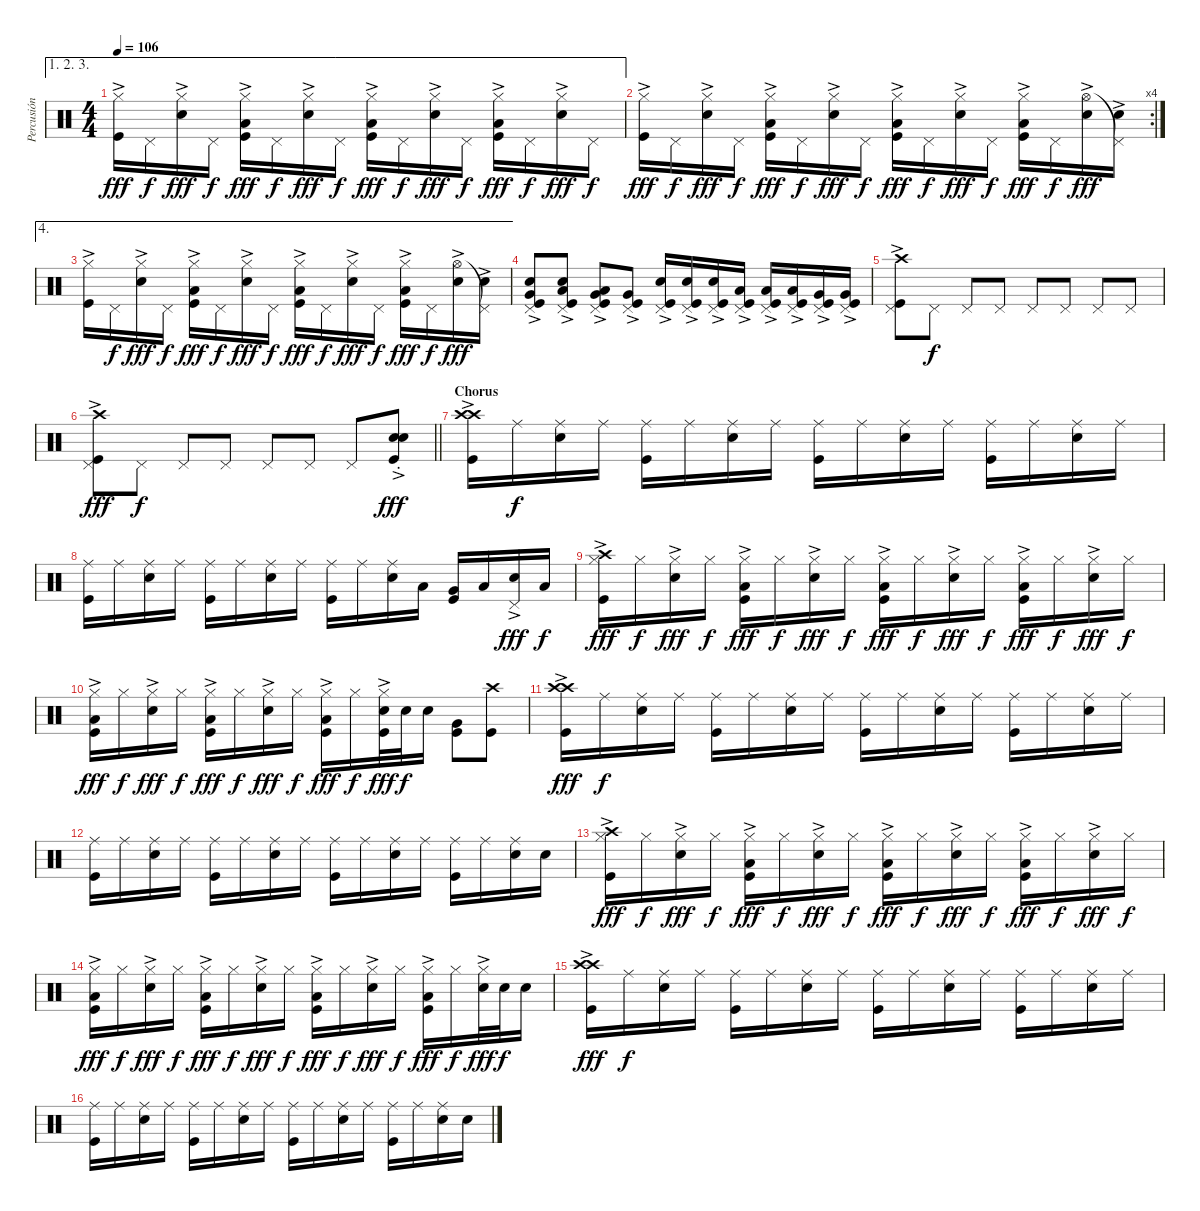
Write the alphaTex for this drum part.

\track ("Percusión" "Percusión") {instrument percussion}
\staff {score}
\articulation defaults
\ae (1 2 3)
\ts (4 4)
\tempo 106
\clef neutral
\ks c
("Hi-Hat (closed)"{ac} "Kick (hit)").16{dy fff} "Pedal Hi-Hat (hit)".16{dy f} ("Hi-Hat (closed)"{ac} "Snare (hit) 2").16{dy fff} "Pedal Hi-Hat (hit)".16{dy f} ("Low Tom (hit)" "Hi-Hat (closed)"{ac} "Kick (hit)").16{dy fff} "Pedal Hi-Hat (hit)".16{dy f} ("Hi-Hat (closed)"{ac} "Snare (hit) 2").16{dy fff} "Pedal Hi-Hat (hit)".16{dy f} ("Low Tom (hit)" "Hi-Hat (closed)"{ac} "Kick (hit)").16{dy fff} "Pedal Hi-Hat (hit)".16{dy f} ("Hi-Hat (closed)"{ac} "Snare (hit) 2").16{dy fff} "Pedal Hi-Hat (hit)".16{dy f} ("Low Tom (hit)" "Hi-Hat (closed)"{ac} "Kick (hit)").16{dy fff} "Pedal Hi-Hat (hit)".16{dy f} ("Hi-Hat (closed)"{ac} "Snare (hit) 2").16{dy fff} "Pedal Hi-Hat (hit)".16{dy f} |
\rc 4
("Hi-Hat (closed)"{ac} "Kick (hit)").16{dy fff} "Pedal Hi-Hat (hit)".16{dy f} ("Hi-Hat (closed)"{ac} "Snare (hit) 2").16{dy fff} "Pedal Hi-Hat (hit)".16{dy f} ("Low Tom (hit)" "Hi-Hat (closed)"{ac} "Kick (hit)").16{dy fff} "Pedal Hi-Hat (hit)".16{dy f} ("Hi-Hat (closed)"{ac} "Snare (hit) 2").16{dy fff} "Pedal Hi-Hat (hit)".16{dy f} ("Low Tom (hit)" "Hi-Hat (closed)"{ac} "Kick (hit)").16{dy fff} "Pedal Hi-Hat (hit)".16{dy f} ("Hi-Hat (closed)"{ac} "Snare (hit) 2").16{dy fff} "Pedal Hi-Hat (hit)".16{dy f} ("Low Tom (hit)" "Hi-Hat (closed)"{ac} "Kick (hit)").16{dy fff} "Pedal Hi-Hat (hit)".16{dy f} ("Hi-Hat (open)"{ac} "Snare (hit) 2").16{dy fff} ("Pedal Hi-Hat (hit)"{t} "Snare (hit) 2"{ac}).16 |
\ae 4
("Hi-Hat (closed)"{ac} "Kick (hit)").16 "Pedal Hi-Hat (hit)".16{dy f} ("Hi-Hat (closed)"{ac} "Snare (hit) 2").16{dy fff} "Pedal Hi-Hat (hit)".16{dy f} ("Low Tom (hit)" "Hi-Hat (closed)"{ac} "Kick (hit)").16{dy fff} "Pedal Hi-Hat (hit)".16{dy f} ("Hi-Hat (closed)"{ac} "Snare (hit) 2").16{dy fff} "Pedal Hi-Hat (hit)".16{dy f} ("Low Tom (hit)" "Hi-Hat (closed)"{ac} "Kick (hit)").16{dy fff} "Pedal Hi-Hat (hit)".16{dy f} ("Hi-Hat (closed)"{ac} "Snare (hit) 2").16{dy fff} "Pedal Hi-Hat (hit)".16{dy f} ("Low Tom (hit)" "Hi-Hat (closed)"{ac} "Kick (hit)").16{dy fff} "Pedal Hi-Hat (hit)".16{dy f} ("Hi-Hat (open)"{ac} "Snare (hit) 2").16{dy fff} ("Pedal Hi-Hat (hit)"{t} "Snare (hit) 2"{ac}).16 |
("Very Low Tom (hit)"{ac} "Pedal Hi-Hat (hit)" "Snare (hit) 2"{ac} "Kick (hit)").8 ("Low Tom (hit)"{ac} "Pedal Hi-Hat (hit)" "Snare (hit) 2"{ac} "Kick (hit)").8 ("Very Low Tom (hit)"{ac} "Low Tom (hit)"{ac} "Pedal Hi-Hat (hit)" "Kick (hit)").8 ("Very Low Tom (hit)"{ac} "Pedal Hi-Hat (hit)" "Kick (hit)").8 ("Pedal Hi-Hat (hit)" "Snare (hit) 2"{ac} "Kick (hit)").16 ("Pedal Hi-Hat (hit)" "Snare (hit) 2"{ac} "Kick (hit)").16 ("Pedal Hi-Hat (hit)" "Snare (hit) 2"{ac} "Kick (hit)").16 ("Low Tom (hit)"{ac} "Pedal Hi-Hat (hit)" "Kick (hit)").16 ("Low Tom (hit)"{ac} "Pedal Hi-Hat (hit)" "Kick (hit)").16 ("Low Tom (hit)"{ac} "Pedal Hi-Hat (hit)" "Kick (hit)").16 ("Very Low Tom (hit)"{ac} "Pedal Hi-Hat (hit)" "Kick (hit)").16 ("Very Low Tom (hit)"{ac} "Pedal Hi-Hat (hit)" "Kick (hit)").16 |
("Crash high (hit)"{ac} "Pedal Hi-Hat (hit)" "Kick (hit)").8 "Pedal Hi-Hat (hit)".8{dy f} "Pedal Hi-Hat (hit)".8 "Pedal Hi-Hat (hit)".8 "Pedal Hi-Hat (hit)".8 "Pedal Hi-Hat (hit)".8 "Pedal Hi-Hat (hit)".8 "Pedal Hi-Hat (hit)".8 |
\barLineRight lightlight
("Crash high (hit)"{ac} "Pedal Hi-Hat (hit)" "Kick (hit)").8{dy fff} "Pedal Hi-Hat (hit)".8{dy f} "Pedal Hi-Hat (hit)".8 "Pedal Hi-Hat (hit)".8 "Pedal Hi-Hat (hit)".8 "Pedal Hi-Hat (hit)".8 "Pedal Hi-Hat (hit)".8 ("Snare (hit) 2"{ac st} "Snare (hit) 2"{ac st} "Kick (hit)"{ac st}).8{dy fff} |
\section ("" "Chorus")
("Crash high (hit)"{ac} "Crash high (hit)"{ac} "Kick (hit)").16 "Ride (middle)".16{dy f} ("Ride (middle)" "Snare (hit) 2").16 "Ride (middle)".16 ("Ride (middle)" "Kick (hit)").16 "Ride (middle)".16 ("Ride (middle)" "Snare (hit) 2").16 "Ride (middle)".16 ("Ride (middle)" "Kick (hit)").16 "Ride (middle)".16 ("Ride (middle)" "Snare (hit) 2").16 "Ride (middle)".16 ("Ride (middle)" "Kick (hit)").16 "Ride (middle)".16 ("Ride (middle)" "Snare (hit) 2").16 "Ride (middle)".16 |
("Ride (middle)" "Kick (hit)").16 "Ride (middle)".16 ("Ride (middle)" "Snare (hit) 2").16 "Ride (middle)".16 ("Ride (middle)" "Kick (hit)").16 "Ride (middle)".16 ("Ride (middle)" "Snare (hit) 2").16 "Ride (middle)".16 ("Ride (middle)" "Kick (hit)").16 "Ride (middle)".16 ("Ride (middle)" "Snare (hit) 2").16 "Low Tom (hit)".16 ("Very Low Tom (hit)" "Kick (hit)").16 "Low Tom (hit)".16 ("Snare (hit) 2" "Pedal Hi-Hat (hit)"{ac}).16{dy fff} "Low Tom (hit)".16{dy f} |
("Crash high (hit)"{ac} "Hi-Hat (closed)"{ac} "Kick (hit)").16{dy fff} "Hi-Hat (closed)".16{dy f} ("Hi-Hat (closed)"{ac} "Snare (hit) 2").16{dy fff} "Hi-Hat (closed)".16{dy f} ("Low Tom (hit)" "Hi-Hat (closed)"{ac} "Kick (hit)").16{dy fff} "Hi-Hat (closed)".16{dy f} ("Hi-Hat (closed)"{ac} "Snare (hit) 2").16{dy fff} "Hi-Hat (closed)".16{dy f} ("Low Tom (hit)" "Hi-Hat (closed)"{ac} "Kick (hit)").16{dy fff} "Hi-Hat (closed)".16{dy f} ("Hi-Hat (closed)"{ac} "Snare (hit) 2").16{dy fff} "Hi-Hat (closed)".16{dy f} ("Low Tom (hit)" "Hi-Hat (closed)"{ac} "Kick (hit)").16{dy fff} "Hi-Hat (closed)".16{dy f} ("Hi-Hat (closed)"{ac} "Snare (hit) 2").16{dy fff} "Hi-Hat (closed)".16{dy f} |
("Low Tom (hit)" "Hi-Hat (closed)"{ac} "Kick (hit)").16{dy fff} "Hi-Hat (closed)".16{dy f} ("Hi-Hat (closed)"{ac} "Snare (hit) 2").16{dy fff} "Hi-Hat (closed)".16{dy f} ("Low Tom (hit)" "Hi-Hat (closed)"{ac} "Kick (hit)").16{dy fff} "Hi-Hat (closed)".16{dy f} ("Hi-Hat (closed)"{ac} "Snare (hit) 2").16{dy fff} "Hi-Hat (closed)".16{dy f} ("Low Tom (hit)" "Hi-Hat (closed)"{ac} "Kick (hit)").16{dy fff} "Hi-Hat (closed)".16{dy f} ("Hi-Hat (closed)"{ac} "Snare (hit) 2" "Kick (hit)").32{dy fff} "Snare (hit) 2".32{dy f} "Snare (hit) 2".16 ("Very Low Tom (hit)" "Kick (hit)").8 ("Crash high (hit)" "Kick (hit)").8 |
("Crash high (hit)"{ac} "Crash high (hit)"{ac} "Kick (hit)").16{dy fff} "Ride (middle)".16{dy f} ("Ride (middle)" "Snare (hit) 2").16 "Ride (middle)".16 ("Ride (middle)" "Kick (hit)").16 "Ride (middle)".16 ("Ride (middle)" "Snare (hit) 2").16 "Ride (middle)".16 ("Ride (middle)" "Kick (hit)").16 "Ride (middle)".16 ("Ride (middle)" "Snare (hit) 2").16 "Ride (middle)".16 ("Ride (middle)" "Kick (hit)").16 "Ride (middle)".16 ("Ride (middle)" "Snare (hit) 2").16 "Ride (middle)".16 |
("Ride (middle)" "Kick (hit)").16 "Ride (middle)".16 ("Ride (middle)" "Snare (hit) 2").16 "Ride (middle)".16 ("Ride (middle)" "Kick (hit)").16 "Ride (middle)".16 ("Ride (middle)" "Snare (hit) 2").16 "Ride (middle)".16 ("Ride (middle)" "Kick (hit)").16 "Ride (middle)".16 ("Ride (middle)" "Snare (hit) 2").16 "Ride (middle)".16 ("Ride (middle)" "Kick (hit)").16 "Ride (middle)".16 ("Ride (middle)" "Snare (hit) 2").16 "Snare (hit) 2".16 |
("Crash high (hit)"{ac} "Hi-Hat (closed)"{ac} "Kick (hit)").16{dy fff} "Hi-Hat (closed)".16{dy f} ("Hi-Hat (closed)"{ac} "Snare (hit) 2").16{dy fff} "Hi-Hat (closed)".16{dy f} ("Low Tom (hit)" "Hi-Hat (closed)"{ac} "Kick (hit)").16{dy fff} "Hi-Hat (closed)".16{dy f} ("Hi-Hat (closed)"{ac} "Snare (hit) 2").16{dy fff} "Hi-Hat (closed)".16{dy f} ("Low Tom (hit)" "Hi-Hat (closed)"{ac} "Kick (hit)").16{dy fff} "Hi-Hat (closed)".16{dy f} ("Hi-Hat (closed)"{ac} "Snare (hit) 2").16{dy fff} "Hi-Hat (closed)".16{dy f} ("Low Tom (hit)" "Hi-Hat (closed)"{ac} "Kick (hit)").16{dy fff} "Hi-Hat (closed)".16{dy f} ("Hi-Hat (closed)"{ac} "Snare (hit) 2").16{dy fff} "Hi-Hat (closed)".16{dy f} |
("Low Tom (hit)" "Hi-Hat (closed)"{ac} "Kick (hit)").16{dy fff} "Hi-Hat (closed)".16{dy f} ("Hi-Hat (closed)"{ac} "Snare (hit) 2").16{dy fff} "Hi-Hat (closed)".16{dy f} ("Low Tom (hit)" "Hi-Hat (closed)"{ac} "Kick (hit)").16{dy fff} "Hi-Hat (closed)".16{dy f} ("Hi-Hat (closed)"{ac} "Snare (hit) 2").16{dy fff} "Hi-Hat (closed)".16{dy f} ("Low Tom (hit)" "Hi-Hat (closed)"{ac} "Kick (hit)").16{dy fff} "Hi-Hat (closed)".16{dy f} ("Hi-Hat (closed)"{ac} "Snare (hit) 2").16{dy fff} "Hi-Hat (closed)".16{dy f} ("Low Tom (hit)" "Hi-Hat (closed)"{ac} "Kick (hit)").16{dy fff} "Hi-Hat (closed)".16{dy f} ("Hi-Hat (closed)"{ac} "Snare (hit) 2").32{dy fff} "Snare (hit) 2".32{dy f} "Snare (hit) 2".16 |
("Crash high (hit)"{ac} "Crash high (hit)"{ac} "Kick (hit)").16{dy fff} "Ride (middle)".16{dy f} ("Ride (middle)" "Snare (hit) 2").16 "Ride (middle)".16 ("Ride (middle)" "Kick (hit)").16 "Ride (middle)".16 ("Ride (middle)" "Snare (hit) 2").16 "Ride (middle)".16 ("Ride (middle)" "Kick (hit)").16 "Ride (middle)".16 ("Ride (middle)" "Snare (hit) 2").16 "Ride (middle)".16 ("Ride (middle)" "Kick (hit)").16 "Ride (middle)".16 ("Ride (middle)" "Snare (hit) 2").16 "Ride (middle)".16 |
("Ride (middle)" "Kick (hit)").16 "Ride (middle)".16 ("Ride (middle)" "Snare (hit) 2").16 "Ride (middle)".16 ("Ride (middle)" "Kick (hit)").16 "Ride (middle)".16 ("Ride (middle)" "Snare (hit) 2").16 "Ride (middle)".16 ("Ride (middle)" "Kick (hit)").16 "Ride (middle)".16 ("Ride (middle)" "Snare (hit) 2").16 "Ride (middle)".16 ("Ride (middle)" "Kick (hit)").16 "Ride (middle)".16 ("Ride (middle)" "Snare (hit) 2").16 "Snare (hit) 2".16
